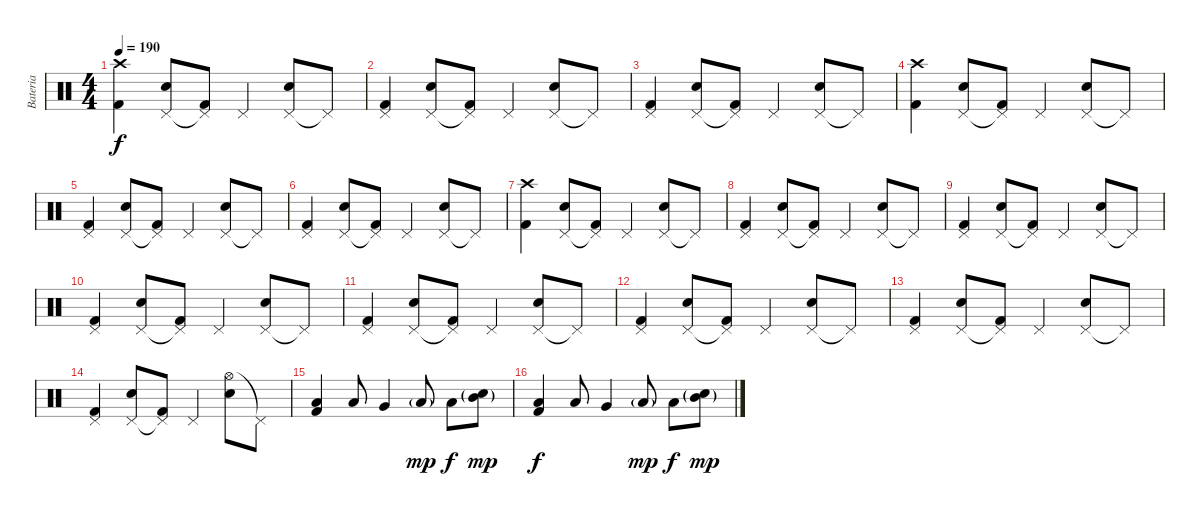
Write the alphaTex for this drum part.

\track ("Bateria" "Bateria") {instrument percussion}
\staff {score}
\articulation defaults
\ts (4 4)
\tempo 190
\clef neutral
\ks c
("Crash high (hit)" "Kick (hit) 2").4{dy f} ("Pedal Hi-Hat (hit)" "Snare (hit) 2").8 ("Pedal Hi-Hat (hit)"{t} "Kick (hit) 2").8 "Pedal Hi-Hat (hit)".4 ("Pedal Hi-Hat (hit)" "Snare (hit) 2").8 "Pedal Hi-Hat (hit)"{t}.8 |
("Pedal Hi-Hat (hit)" "Kick (hit) 2").4 ("Pedal Hi-Hat (hit)" "Snare (hit) 2").8 ("Pedal Hi-Hat (hit)"{t} "Kick (hit) 2").8 "Pedal Hi-Hat (hit)".4 ("Pedal Hi-Hat (hit)" "Snare (hit) 2").8 "Pedal Hi-Hat (hit)"{t}.8 |
("Pedal Hi-Hat (hit)" "Kick (hit) 2").4 ("Pedal Hi-Hat (hit)" "Snare (hit) 2").8 ("Pedal Hi-Hat (hit)"{t} "Kick (hit) 2").8 "Pedal Hi-Hat (hit)".4 ("Pedal Hi-Hat (hit)" "Snare (hit) 2").8 "Pedal Hi-Hat (hit)"{t}.8 |
("Crash high (hit)" "Kick (hit) 2").4 ("Pedal Hi-Hat (hit)" "Snare (hit) 2").8 ("Pedal Hi-Hat (hit)"{t} "Kick (hit) 2").8 "Pedal Hi-Hat (hit)".4 ("Pedal Hi-Hat (hit)" "Snare (hit) 2").8 "Pedal Hi-Hat (hit)"{t}.8 |
("Pedal Hi-Hat (hit)" "Kick (hit) 2").4 ("Pedal Hi-Hat (hit)" "Snare (hit) 2").8 ("Pedal Hi-Hat (hit)"{t} "Kick (hit) 2").8 "Pedal Hi-Hat (hit)".4 ("Pedal Hi-Hat (hit)" "Snare (hit) 2").8 "Pedal Hi-Hat (hit)"{t}.8 |
("Pedal Hi-Hat (hit)" "Kick (hit) 2").4 ("Pedal Hi-Hat (hit)" "Snare (hit) 2").8 ("Pedal Hi-Hat (hit)"{t} "Kick (hit) 2").8 "Pedal Hi-Hat (hit)".4 ("Pedal Hi-Hat (hit)" "Snare (hit) 2").8 "Pedal Hi-Hat (hit)"{t}.8 |
("Crash high (hit)" "Kick (hit) 2").4 ("Pedal Hi-Hat (hit)" "Snare (hit) 2").8 ("Pedal Hi-Hat (hit)"{t} "Kick (hit) 2").8 "Pedal Hi-Hat (hit)".4 ("Pedal Hi-Hat (hit)" "Snare (hit) 2").8 "Pedal Hi-Hat (hit)"{t}.8 |
("Pedal Hi-Hat (hit)" "Kick (hit) 2").4 ("Pedal Hi-Hat (hit)" "Snare (hit) 2").8 ("Pedal Hi-Hat (hit)"{t} "Kick (hit) 2").8 "Pedal Hi-Hat (hit)".4 ("Pedal Hi-Hat (hit)" "Snare (hit) 2").8 "Pedal Hi-Hat (hit)"{t}.8 |
("Pedal Hi-Hat (hit)" "Kick (hit) 2").4 ("Pedal Hi-Hat (hit)" "Snare (hit) 2").8 ("Pedal Hi-Hat (hit)"{t} "Kick (hit) 2").8 "Pedal Hi-Hat (hit)".4 ("Pedal Hi-Hat (hit)" "Snare (hit) 2").8 "Pedal Hi-Hat (hit)"{t}.8 |
("Pedal Hi-Hat (hit)" "Kick (hit) 2").4 ("Pedal Hi-Hat (hit)" "Snare (hit) 2").8 ("Pedal Hi-Hat (hit)"{t} "Kick (hit) 2").8 "Pedal Hi-Hat (hit)".4 ("Pedal Hi-Hat (hit)" "Snare (hit) 2").8 "Pedal Hi-Hat (hit)"{t}.8 |
("Pedal Hi-Hat (hit)" "Kick (hit) 2").4 ("Pedal Hi-Hat (hit)" "Snare (hit) 2").8 ("Pedal Hi-Hat (hit)"{t} "Kick (hit) 2").8 "Pedal Hi-Hat (hit)".4 ("Pedal Hi-Hat (hit)" "Snare (hit) 2").8 "Pedal Hi-Hat (hit)"{t}.8 |
("Pedal Hi-Hat (hit)" "Kick (hit) 2").4 ("Pedal Hi-Hat (hit)" "Snare (hit) 2").8 ("Pedal Hi-Hat (hit)"{t} "Kick (hit) 2").8 "Pedal Hi-Hat (hit)".4 ("Pedal Hi-Hat (hit)" "Snare (hit) 2").8 "Pedal Hi-Hat (hit)"{t}.8 |
("Pedal Hi-Hat (hit)" "Kick (hit) 2").4 ("Pedal Hi-Hat (hit)" "Snare (hit) 2").8 ("Pedal Hi-Hat (hit)"{t} "Kick (hit) 2").8 "Pedal Hi-Hat (hit)".4 ("Pedal Hi-Hat (hit)" "Snare (hit) 2").8 "Pedal Hi-Hat (hit)"{t}.8 |
("Pedal Hi-Hat (hit)" "Kick (hit) 2").4 ("Pedal Hi-Hat (hit)" "Snare (hit) 2").8 ("Pedal Hi-Hat (hit)"{t} "Kick (hit) 2").8 "Pedal Hi-Hat (hit)".4 ("Hi-Hat (open)" "Snare (hit) 2").8 "Pedal Hi-Hat (hit)"{t}.8 |
("Low Tom (hit)" "Kick (hit) 2").4 "Low Tom (hit)".8 "Very Low Tom (hit)".4 "Low Tom (hit)"{g}.8{dy mp} "Low Tom (hit)".8{dy f} ("Mid Tom (hit)"{g} "Snare (hit) 2"{g}).8{dy mp} |
("Low Tom (hit)" "Kick (hit) 2").4{dy f} "Low Tom (hit)".8 "Very Low Tom (hit)".4 "Low Tom (hit)"{g}.8{dy mp} "Low Tom (hit)".8{dy f} ("Mid Tom (hit)"{g} "Snare (hit) 2"{g}).8{dy mp}
